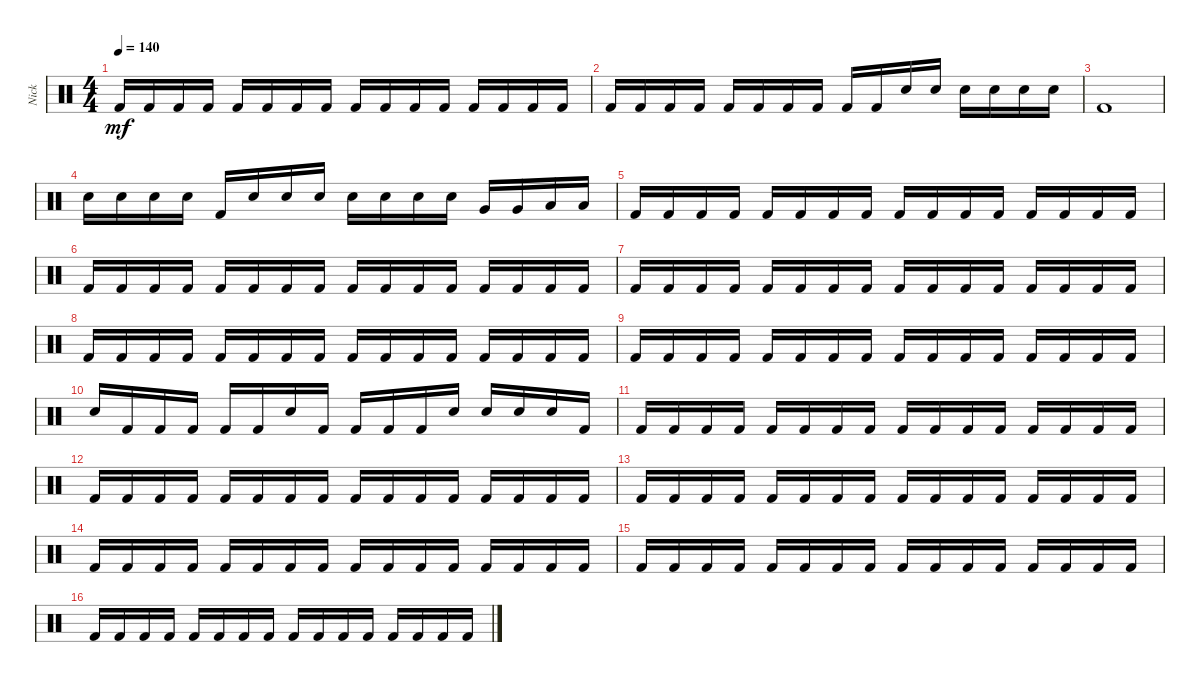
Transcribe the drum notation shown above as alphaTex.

\track ("Nick " "Nick ") {instrument percussion}
\staff {score}
\articulation defaults
\ts (4 4)
\tempo 140
\clef neutral
\ks c "Kick (hit) 2".16{dy mf} "Kick (hit) 2".16 "Kick (hit) 2".16 "Kick (hit) 2".16 "Kick (hit) 2".16 "Kick (hit) 2".16 "Kick (hit) 2".16 "Kick (hit) 2".16 "Kick (hit) 2".16 "Kick (hit) 2".16 "Kick (hit) 2".16 "Kick (hit) 2".16 "Kick (hit) 2".16 "Kick (hit) 2".16 "Kick (hit) 2".16 "Kick (hit) 2".16
|
"Kick (hit) 2".16 "Kick (hit) 2".16 "Kick (hit) 2".16 "Kick (hit) 2".16 "Kick (hit) 2".16 "Kick (hit) 2".16 "Kick (hit) 2".16 "Kick (hit) 2".16 "Kick (hit) 2".16 "Kick (hit) 2".16 "Snare (hit) 2".16 "Snare (hit) 2".16 "Snare (hit) 2".16 "Snare (hit) 2".16 "Snare (hit) 2".16 "Snare (hit) 2".16 |
"Kick (hit) 2".1 |
"Snare (hit) 2".16 "Snare (hit) 2".16 "Snare (hit) 2".16 "Snare (hit) 2".16 "Kick (hit) 2".16 "Snare (hit) 2".16 "Snare (hit) 2".16 "Snare (hit) 2".16 "Snare (hit) 2".16 "Snare (hit) 2".16 "Snare (hit) 2".16 "Snare (hit) 2".16 "Very Low Tom (hit)".16 "Very Low Tom (hit)".16 "Low Floor Tom (hit)".16 "Low Floor Tom (hit)".16 |
"Kick (hit) 2".16 "Kick (hit) 2".16 "Kick (hit) 2".16 "Kick (hit) 2".16 "Kick (hit) 2".16 "Kick (hit) 2".16 "Kick (hit) 2".16 "Kick (hit) 2".16 "Kick (hit) 2".16 "Kick (hit) 2".16 "Kick (hit) 2".16 "Kick (hit) 2".16 "Kick (hit) 2".16 "Kick (hit) 2".16 "Kick (hit) 2".16 "Kick (hit) 2".16 |
"Kick (hit) 2".16 "Kick (hit) 2".16 "Kick (hit) 2".16 "Kick (hit) 2".16 "Kick (hit) 2".16 "Kick (hit) 2".16 "Kick (hit) 2".16 "Kick (hit) 2".16 "Kick (hit) 2".16 "Kick (hit) 2".16 "Kick (hit) 2".16 "Kick (hit) 2".16 "Kick (hit) 2".16 "Kick (hit) 2".16 "Kick (hit) 2".16 "Kick (hit) 2".16 |
"Kick (hit) 2".16 "Kick (hit) 2".16 "Kick (hit) 2".16 "Kick (hit) 2".16 "Kick (hit) 2".16 "Kick (hit) 2".16 "Kick (hit) 2".16 "Kick (hit) 2".16 "Kick (hit) 2".16 "Kick (hit) 2".16 "Kick (hit) 2".16 "Kick (hit) 2".16 "Kick (hit) 2".16 "Kick (hit) 2".16 "Kick (hit) 2".16 "Kick (hit) 2".16 |
"Kick (hit) 2".16 "Kick (hit) 2".16 "Kick (hit) 2".16 "Kick (hit) 2".16 "Kick (hit) 2".16 "Kick (hit) 2".16 "Kick (hit) 2".16 "Kick (hit) 2".16 "Kick (hit) 2".16 "Kick (hit) 2".16 "Kick (hit) 2".16 "Kick (hit) 2".16 "Kick (hit) 2".16 "Kick (hit) 2".16 "Kick (hit) 2".16 "Kick (hit) 2".16 |
"Kick (hit) 2".16 "Kick (hit) 2".16 "Kick (hit) 2".16 "Kick (hit) 2".16 "Kick (hit) 2".16 "Kick (hit) 2".16 "Kick (hit) 2".16 "Kick (hit) 2".16 "Kick (hit) 2".16 "Kick (hit) 2".16 "Kick (hit) 2".16 "Kick (hit) 2".16 "Kick (hit) 2".16 "Kick (hit) 2".16 "Kick (hit) 2".16 "Kick (hit) 2".16 |
"Snare (hit) 2".16 "Kick (hit) 2".16 "Kick (hit) 2".16 "Kick (hit) 2".16 "Kick (hit) 2".16 "Kick (hit) 2".16 "Snare (hit) 2".16 "Kick (hit) 2".16 "Kick (hit) 2".16 "Kick (hit) 2".16 "Kick (hit) 2".16 "Snare (hit) 2".16 "Snare (hit) 2".16 "Snare (hit) 2".16 "Snare (hit) 2".16 "Kick (hit) 2".16 |
"Kick (hit) 2".16 "Kick (hit) 2".16 "Kick (hit) 2".16 "Kick (hit) 2".16 "Kick (hit) 2".16 "Kick (hit) 2".16 "Kick (hit) 2".16 "Kick (hit) 2".16 "Kick (hit) 2".16 "Kick (hit) 2".16 "Kick (hit) 2".16 "Kick (hit) 2".16 "Kick (hit) 2".16 "Kick (hit) 2".16 "Kick (hit) 2".16 "Kick (hit) 2".16 |
"Kick (hit) 2".16 "Kick (hit) 2".16 "Kick (hit) 2".16 "Kick (hit) 2".16 "Kick (hit) 2".16 "Kick (hit) 2".16 "Kick (hit) 2".16 "Kick (hit) 2".16 "Kick (hit) 2".16 "Kick (hit) 2".16 "Kick (hit) 2".16 "Kick (hit) 2".16 "Kick (hit) 2".16 "Kick (hit) 2".16 "Kick (hit) 2".16 "Kick (hit) 2".16 |
"Kick (hit) 2".16 "Kick (hit) 2".16 "Kick (hit) 2".16 "Kick (hit) 2".16 "Kick (hit) 2".16 "Kick (hit) 2".16 "Kick (hit) 2".16 "Kick (hit) 2".16 "Kick (hit) 2".16 "Kick (hit) 2".16 "Kick (hit) 2".16 "Kick (hit) 2".16 "Kick (hit) 2".16 "Kick (hit) 2".16 "Kick (hit) 2".16 "Kick (hit) 2".16 |
"Kick (hit) 2".16 "Kick (hit) 2".16 "Kick (hit) 2".16 "Kick (hit) 2".16 "Kick (hit) 2".16 "Kick (hit) 2".16 "Kick (hit) 2".16 "Kick (hit) 2".16 "Kick (hit) 2".16 "Kick (hit) 2".16 "Kick (hit) 2".16 "Kick (hit) 2".16 "Kick (hit) 2".16 "Kick (hit) 2".16 "Kick (hit) 2".16 "Kick (hit) 2".16 |
"Kick (hit) 2".16 "Kick (hit) 2".16 "Kick (hit) 2".16 "Kick (hit) 2".16 "Kick (hit) 2".16 "Kick (hit) 2".16 "Kick (hit) 2".16 "Kick (hit) 2".16 "Kick (hit) 2".16 "Kick (hit) 2".16 "Kick (hit) 2".16 "Kick (hit) 2".16 "Kick (hit) 2".16 "Kick (hit) 2".16 "Kick (hit) 2".16 "Kick (hit) 2".16 |
"Kick (hit) 2".16 "Kick (hit) 2".16 "Kick (hit) 2".16 "Kick (hit) 2".16 "Kick (hit) 2".16 "Kick (hit) 2".16 "Kick (hit) 2".16 "Kick (hit) 2".16 "Kick (hit) 2".16 "Kick (hit) 2".16 "Kick (hit) 2".16 "Kick (hit) 2".16 "Kick (hit) 2".16 "Kick (hit) 2".16 "Kick (hit) 2".16 "Kick (hit) 2".16
